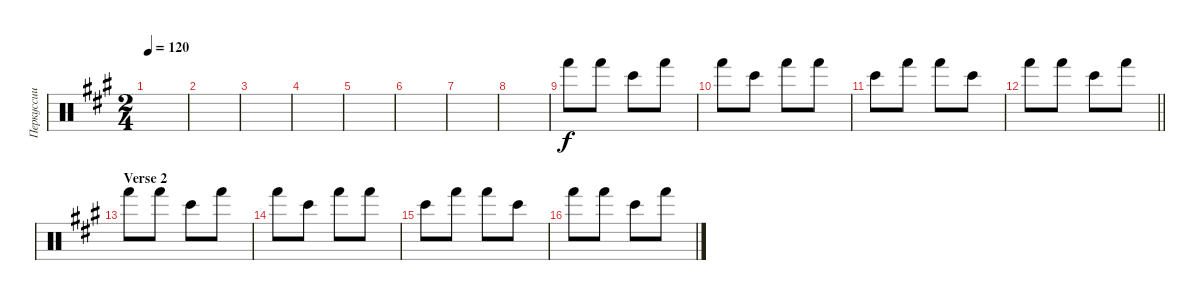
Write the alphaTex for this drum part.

\track ("Перкуссии" "Перкуссии") {instrument percussion}
\staff {score}
\articulation defaults
\ts (2 4)
\tempo 120
\clef neutral
\ks f#minor
|
|
|
|
|
|
|
|
"Hand (hit)".8 "Hand (hit)".8 "Bongo High (hit)".8 "Hand (hit)".8 |
"Hand (hit)".8 "Bongo High (hit)".8 "Hand (hit)".8 "Hand (hit)".8 |
"Bongo High (hit)".8 "Hand (hit)".8 "Hand (hit)".8 "Bongo High (hit)".8 |
\barLineRight lightlight "Hand (hit)".8 "Hand (hit)".8 "Bongo High (hit)".8 "Hand (hit)".8
|
\section ("" "Verse 2")
"Hand (hit)".8 "Hand (hit)".8 "Bongo High (hit)".8 "Hand (hit)".8 |
"Hand (hit)".8 "Bongo High (hit)".8 "Hand (hit)".8 "Hand (hit)".8 |
"Bongo High (hit)".8 "Hand (hit)".8 "Hand (hit)".8 "Bongo High (hit)".8 |
"Hand (hit)".8 "Hand (hit)".8 "Bongo High (hit)".8 "Hand (hit)".8
